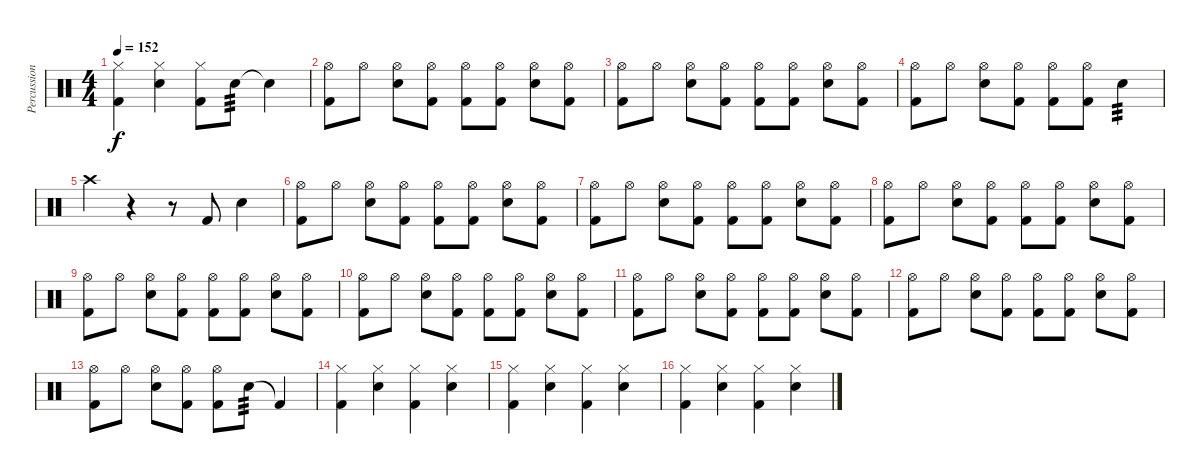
\track ("Percussion" "Percussion") {instrument percussion}
\staff {score}
\articulation defaults
\ts (4 4)
\tempo 152
\clef neutral
\ks c
("Kick (hit) 2" "Hi-Hat (closed)").4{dy f} ("Snare (hit) 2" "Hi-Hat (closed)").4 ("Kick (hit) 2" "Hi-Hat (closed)").8 "Snare (hit) 2".8{tp 3} "Snare (hit)"{t}.4 |
("Kick (hit) 2" "Hi-Hat (open)").8 "Hi-Hat (open)".8 ("Snare (hit) 2" "Hi-Hat (open)").8 ("Kick (hit) 2" "Hi-Hat (open)").8 ("Kick (hit) 2" "Hi-Hat (open)").8 ("Kick (hit) 2" "Hi-Hat (open)").8 ("Snare (hit) 2" "Hi-Hat (open)").8 ("Kick (hit) 2" "Hi-Hat (open)").8 |
("Kick (hit) 2" "Hi-Hat (open)").8 "Hi-Hat (open)".8 ("Snare (hit) 2" "Hi-Hat (open)").8 ("Kick (hit) 2" "Hi-Hat (open)").8 ("Kick (hit) 2" "Hi-Hat (open)").8 ("Kick (hit) 2" "Hi-Hat (open)").8 ("Snare (hit) 2" "Hi-Hat (open)").8 ("Kick (hit) 2" "Hi-Hat (open)").8 |
("Kick (hit) 2" "Hi-Hat (open)").8 "Hi-Hat (open)".8 ("Snare (hit) 2" "Hi-Hat (open)").8 ("Kick (hit) 2" "Hi-Hat (open)").8 ("Kick (hit) 2" "Hi-Hat (open)").8 ("Kick (hit) 2" "Hi-Hat (open)").8 "Snare (hit) 2".4{tp 3} |
"Crash high (hit)".4 r.4 r.8 "Kick (hit) 2".8 "Snare (hit) 2".4 |
("Kick (hit) 2" "Hi-Hat (open)").8 "Hi-Hat (open)".8 ("Snare (hit) 2" "Hi-Hat (open)").8 ("Kick (hit) 2" "Hi-Hat (open)").8 ("Kick (hit) 2" "Hi-Hat (open)").8 ("Kick (hit) 2" "Hi-Hat (open)").8 ("Snare (hit) 2" "Hi-Hat (open)").8 ("Kick (hit) 2" "Hi-Hat (open)").8 |
("Kick (hit) 2" "Hi-Hat (open)").8 "Hi-Hat (open)".8 ("Snare (hit) 2" "Hi-Hat (open)").8 ("Kick (hit) 2" "Hi-Hat (open)").8 ("Kick (hit) 2" "Hi-Hat (open)").8 ("Kick (hit) 2" "Hi-Hat (open)").8 ("Snare (hit) 2" "Hi-Hat (open)").8 ("Kick (hit) 2" "Hi-Hat (open)").8 |
("Kick (hit) 2" "Hi-Hat (open)").8 "Hi-Hat (open)".8 ("Snare (hit) 2" "Hi-Hat (open)").8 ("Kick (hit) 2" "Hi-Hat (open)").8 ("Kick (hit) 2" "Hi-Hat (open)").8 ("Kick (hit) 2" "Hi-Hat (open)").8 ("Snare (hit) 2" "Hi-Hat (open)").8 ("Kick (hit) 2" "Hi-Hat (open)").8 |
("Kick (hit) 2" "Hi-Hat (open)").8 "Hi-Hat (open)".8 ("Snare (hit) 2" "Hi-Hat (open)").8 ("Kick (hit) 2" "Hi-Hat (open)").8 ("Kick (hit) 2" "Hi-Hat (open)").8 ("Kick (hit) 2" "Hi-Hat (open)").8 ("Snare (hit) 2" "Hi-Hat (open)").8 ("Kick (hit) 2" "Hi-Hat (open)").8 |
("Kick (hit) 2" "Hi-Hat (open)").8 "Hi-Hat (open)".8 ("Snare (hit) 2" "Hi-Hat (open)").8 ("Kick (hit) 2" "Hi-Hat (open)").8 ("Kick (hit) 2" "Hi-Hat (open)").8 ("Kick (hit) 2" "Hi-Hat (open)").8 ("Snare (hit) 2" "Hi-Hat (open)").8 ("Kick (hit) 2" "Hi-Hat (open)").8 |
("Kick (hit) 2" "Hi-Hat (open)").8 "Hi-Hat (open)".8 ("Snare (hit) 2" "Hi-Hat (open)").8 ("Kick (hit) 2" "Hi-Hat (open)").8 ("Kick (hit) 2" "Hi-Hat (open)").8 ("Kick (hit) 2" "Hi-Hat (open)").8 ("Snare (hit) 2" "Hi-Hat (open)").8 ("Kick (hit) 2" "Hi-Hat (open)").8 |
("Kick (hit) 2" "Hi-Hat (open)").8 "Hi-Hat (open)".8 ("Snare (hit) 2" "Hi-Hat (open)").8 ("Kick (hit) 2" "Hi-Hat (open)").8 ("Kick (hit) 2" "Hi-Hat (open)").8 ("Kick (hit) 2" "Hi-Hat (open)").8 ("Snare (hit) 2" "Hi-Hat (open)").8 ("Kick (hit) 2" "Hi-Hat (open)").8 |
("Kick (hit) 2" "Hi-Hat (open)").8 "Hi-Hat (open)".8 ("Snare (hit) 2" "Hi-Hat (open)").8 ("Kick (hit) 2" "Hi-Hat (open)").8 ("Kick (hit) 2" "Hi-Hat (open)").8 "Snare (hit) 2".8{tp 3} "Kick (hit) 2"{t}.4 |
("Kick (hit) 2" "Hi-Hat (closed)").4 ("Snare (hit) 2" "Hi-Hat (closed)").4 ("Kick (hit) 2" "Hi-Hat (closed)").4 ("Snare (hit) 2" "Hi-Hat (closed)").4 |
("Kick (hit) 2" "Hi-Hat (closed)").4 ("Snare (hit) 2" "Hi-Hat (closed)").4 ("Kick (hit) 2" "Hi-Hat (closed)").4 ("Snare (hit) 2" "Hi-Hat (closed)").4 |
("Kick (hit) 2" "Hi-Hat (closed)").4 ("Snare (hit) 2" "Hi-Hat (closed)").4 ("Kick (hit) 2" "Hi-Hat (closed)").4 ("Snare (hit) 2" "Hi-Hat (closed)").4
